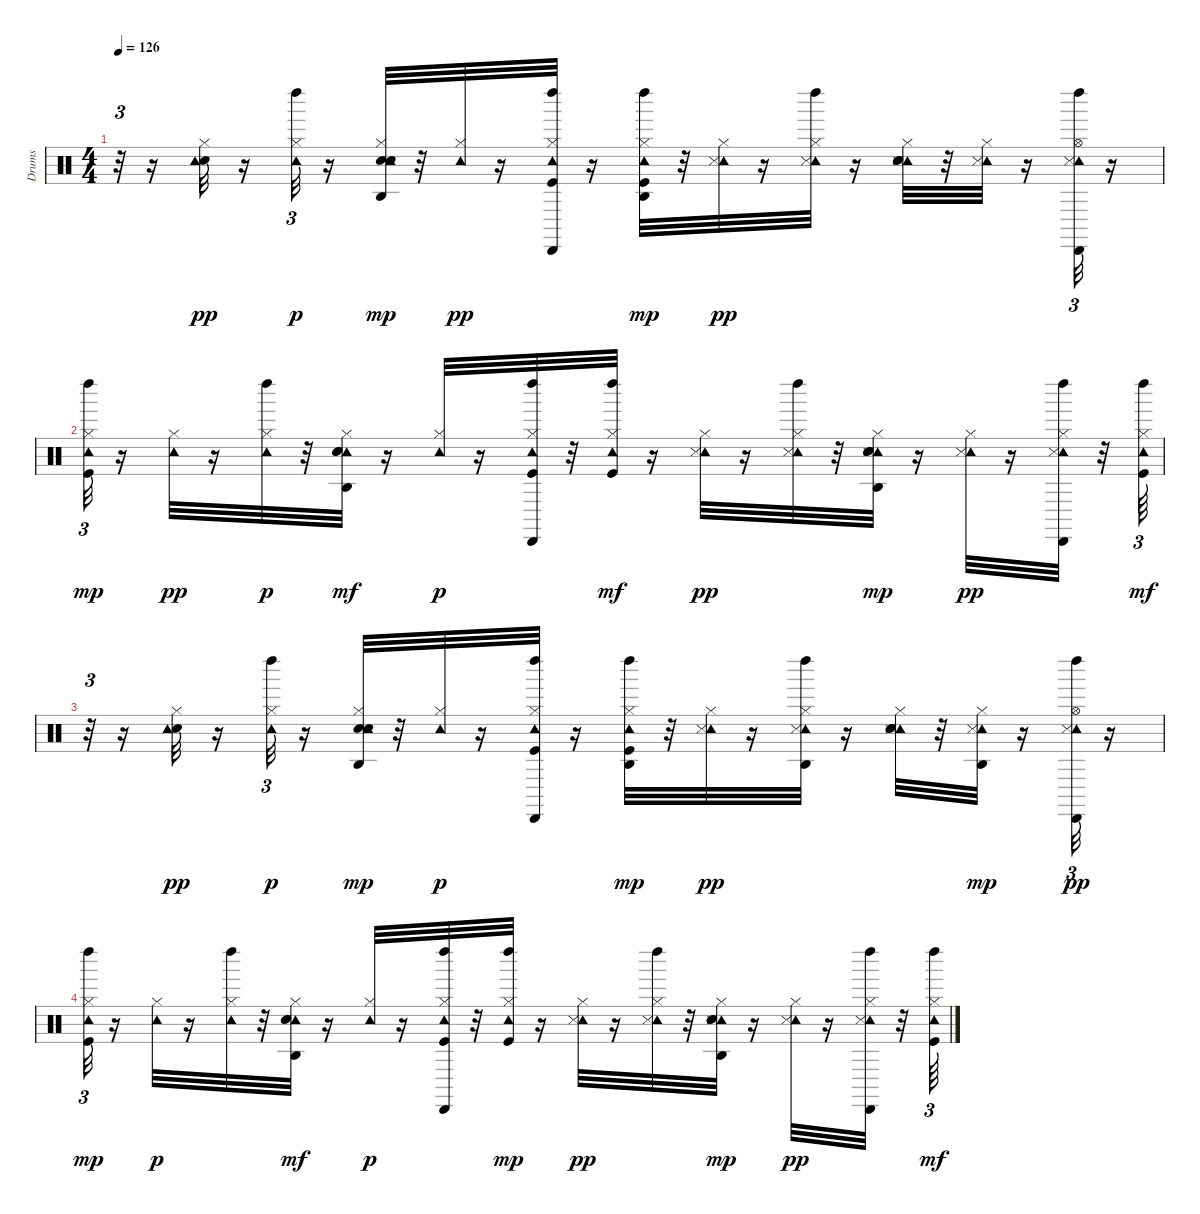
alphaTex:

\track ("Drums" "Drums") {instrument percussion}
\staff {score}
\articulation defaults
\ts (4 4)
\tempo 126
\clef neutral
\ks c
r.32{tu (3 2) dy mf} r.16 ("Electric Snare (hit)" "Hi-Hat (closed)" "Tambourine (hit)").32{dy pp} r.16 ("Left Maraca (hit)" "Hi-Hat (closed)" "Tambourine (hit)").32{tu (3 2) dy p} r.16 ("Snare (hit) 2" "Hi-Hat (closed)" "Tambourine (hit)" "Agogo high (hit)" "Hand Clap (hit)").32{dy mp} r.32 ("Hi-Hat (closed)" "Tambourine (hit)").32{dy pp} r.16 ("Kick (hit)" "Hi-Hat (closed)" "Left Maraca (hit)" "Tambourine (hit)" "Cabasa (hit)").32 r.16 ("Tambourine (hit)" "Kick (hit)" "Hi-Hat (closed)" "Left Maraca (hit)" "Agogo high (hit)").32{dy mp} r.32 ("Hi-Hat (closed)" "Tambourine (hit)" "Snare (side stick) 3").32{dy pp} r.16 ("Hi-Hat (closed)" "Left Maraca (hit)" "Tambourine (hit)" "Snare (side stick) 3").32 r.16 ("Hi-Hat (closed)" "Tambourine (hit)" "Hand Clap (hit)" "Snare (hit) 2" "Snare (side stick) 3").32 r.32 ("Hi-Hat (closed)" "Tambourine (hit)" "Snare (side stick) 3").32 r.16 ("Hi-Hat (open)" "Left Maraca (hit)" "Tambourine (hit)" "Cabasa (hit)" "Snare (side stick) 3").32{tu (3 2)} r.16 |
("Kick (hit)" "Hi-Hat (closed)" "Left Maraca (hit)" "Tambourine (hit)").32{tu (3 2) dy mp} r.16 ("Hi-Hat (closed)" "Tambourine (hit)").32{dy pp} r.16 ("Hi-Hat (closed)" "Tambourine (hit)" "Left Maraca (hit)").32{dy p} r.32 ("Hi-Hat (closed)" "Tambourine (hit)" "Agogo high (hit)" "Snare (hit) 2" "Hand Clap (hit)").32{dy mf} r.16 ("Hi-Hat (closed)" "Tambourine (hit)").32{dy p} r.16 ("Cabasa (hit)" "Kick (hit)" "Hi-Hat (closed)" "Tambourine (hit)" "Left Maraca (hit)").32 r.32 ("Hi-Hat (closed)" "Tambourine (hit)" "Kick (hit)" "Left Maraca (hit)").32{dy mf} r.16 ("Hi-Hat (closed)" "Tambourine (hit)" "Snare (side stick) 3").32{dy pp} r.16 ("Hi-Hat (closed)" "Left Maraca (hit)" "Tambourine (hit)" "Snare (side stick) 3").32 r.32 ("Hi-Hat (closed)" "Tambourine (hit)" "Hand Clap (hit)" "Snare (hit) 2" "Snare (side stick) 3" "Agogo high (hit)").32{dy mp} r.16 ("Hi-Hat (closed)" "Tambourine (hit)" "Snare (side stick) 3").32{dy pp} r.16 ("Cabasa (hit)" "Hi-Hat (closed)" "Left Maraca (hit)" "Tambourine (hit)" "Snare (side stick) 3").32 r.32 ("Tambourine (hit)" "Kick (hit)" "Hi-Hat (closed)" "Left Maraca (hit)").64{tu (3 2) dy mf} |
r.32{tu (3 2)} r.16 ("Electric Snare (hit)" "Hi-Hat (closed)" "Tambourine (hit)").32{dy pp} r.16 ("Left Maraca (hit)" "Hi-Hat (closed)" "Tambourine (hit)").32{tu (3 2) dy p} r.16 ("Snare (hit) 2" "Hi-Hat (closed)" "Tambourine (hit)" "Agogo high (hit)" "Hand Clap (hit)").32{dy mp} r.32 ("Hi-Hat (closed)" "Tambourine (hit)").32{dy p} r.16 ("Kick (hit)" "Hi-Hat (closed)" "Left Maraca (hit)" "Tambourine (hit)" "Cabasa (hit)").32 r.16 ("Tambourine (hit)" "Kick (hit)" "Hi-Hat (closed)" "Left Maraca (hit)" "Agogo high (hit)").32{dy mp} r.32 ("Hi-Hat (closed)" "Tambourine (hit)" "Snare (side stick) 3").32{dy pp} r.16 ("Hi-Hat (closed)" "Left Maraca (hit)" "Tambourine (hit)" "Agogo high (hit)" "Snare (side stick) 3").32 r.16 ("Hi-Hat (closed)" "Tambourine (hit)" "Hand Clap (hit)" "Snare (hit) 2" "Snare (side stick) 3").32 r.32 ("Hi-Hat (closed)" "Tambourine (hit)" "Snare (side stick) 3" "Agogo high (hit)").32{dy mp} r.16 ("Hi-Hat (open)" "Left Maraca (hit)" "Tambourine (hit)" "Cabasa (hit)" "Snare (side stick) 3").32{tu (3 2) dy pp} r.16 |
("Kick (hit)" "Hi-Hat (closed)" "Left Maraca (hit)" "Tambourine (hit)").32{tu (3 2) dy mp} r.16 ("Hi-Hat (closed)" "Tambourine (hit)").32{dy p} r.16 ("Hi-Hat (closed)" "Tambourine (hit)" "Left Maraca (hit)").32 r.32 ("Hi-Hat (closed)" "Tambourine (hit)" "Agogo high (hit)" "Snare (hit) 2" "Hand Clap (hit)").32{dy mf} r.16 ("Hi-Hat (closed)" "Tambourine (hit)").32{dy p} r.16 ("Cabasa (hit)" "Kick (hit)" "Hi-Hat (closed)" "Tambourine (hit)" "Left Maraca (hit)").32 r.32 ("Hi-Hat (closed)" "Tambourine (hit)" "Kick (hit)" "Left Maraca (hit)").32{dy mp} r.16 ("Hi-Hat (closed)" "Tambourine (hit)" "Snare (side stick) 3").32{dy pp} r.16 ("Hi-Hat (closed)" "Left Maraca (hit)" "Tambourine (hit)" "Snare (side stick) 3").32 r.32 ("Hi-Hat (closed)" "Tambourine (hit)" "Hand Clap (hit)" "Snare (hit) 2" "Snare (side stick) 3" "Agogo high (hit)").32{dy mp} r.16 ("Hi-Hat (closed)" "Tambourine (hit)" "Snare (side stick) 3").32{dy pp} r.16 ("Cabasa (hit)" "Hi-Hat (closed)" "Left Maraca (hit)" "Tambourine (hit)" "Snare (side stick) 3").32 r.32 ("Tambourine (hit)" "Kick (hit)" "Hi-Hat (closed)" "Left Maraca (hit)").64{tu (3 2) dy mf}
